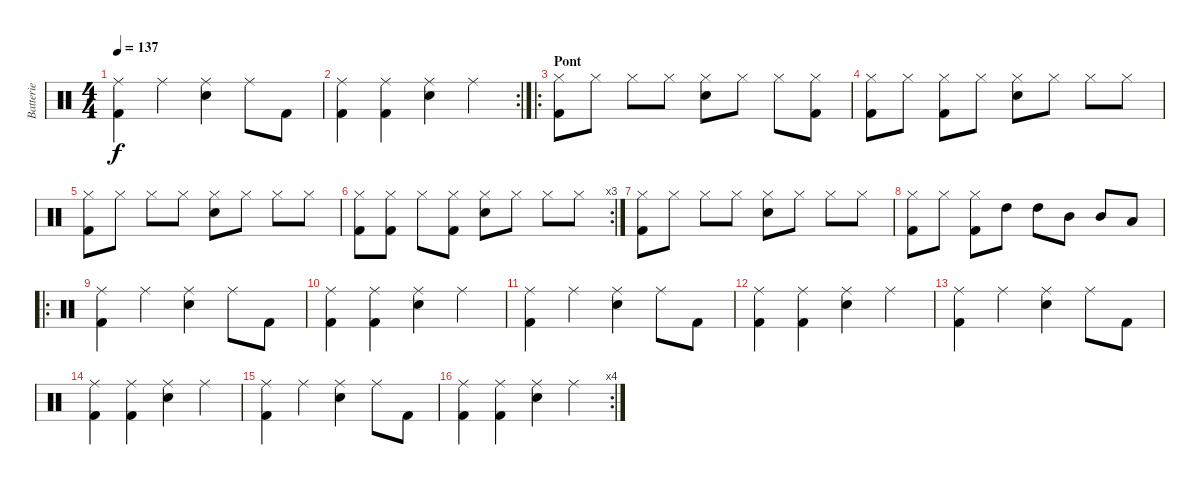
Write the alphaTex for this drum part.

\track ("Batterie" "Batterie") {instrument percussion}
\staff {score}
\articulation defaults
\ts (4 4)
\tempo 137
\clef neutral
\ks c
("Kick (hit) 2" "Ride (middle)").4{dy f} "Ride (middle)".4 ("Snare (hit) 2" "Ride (middle)").4 "Ride (middle)".8 "Kick (hit) 2".8 |
\rc 2
("Kick (hit) 2" "Ride (middle)").4 ("Kick (hit) 2" "Ride (middle)").4 ("Snare (hit) 2" "Ride (middle)").4 "Ride (middle)".4 |
\ro
\section ("" "Pont")
("Kick (hit) 2" "Hi-Hat (closed)").8 "Hi-Hat (closed)".8 "Hi-Hat (closed)".8 "Hi-Hat (closed)".8 ("Snare (hit) 2" "Hi-Hat (closed)").8 "Hi-Hat (closed)".8 "Hi-Hat (closed)".8 ("Kick (hit) 2" "Hi-Hat (closed)").8 |
("Kick (hit) 2" "Hi-Hat (closed)").8 "Hi-Hat (closed)".8 ("Kick (hit) 2" "Hi-Hat (closed)").8 "Hi-Hat (closed)".8 ("Snare (hit) 2" "Hi-Hat (closed)").8 "Hi-Hat (closed)".8 "Hi-Hat (closed)".8 "Hi-Hat (closed)".8 |
("Kick (hit) 2" "Hi-Hat (closed)").8 "Hi-Hat (closed)".8 "Hi-Hat (closed)".8 "Hi-Hat (closed)".8 ("Snare (hit) 2" "Hi-Hat (closed)").8 "Hi-Hat (closed)".8 "Hi-Hat (closed)".8 "Hi-Hat (closed)".8 |
\rc 3
("Kick (hit) 2" "Hi-Hat (closed)").8 ("Kick (hit) 2" "Hi-Hat (closed)").8 "Hi-Hat (closed)".8 ("Kick (hit) 2" "Hi-Hat (closed)").8 ("Snare (hit) 2" "Hi-Hat (closed)").8 "Hi-Hat (closed)".8 "Hi-Hat (closed)".8 "Hi-Hat (closed)".8 |
("Kick (hit) 2" "Hi-Hat (closed)").8 "Hi-Hat (closed)".8{volume 8} "Hi-Hat (closed)".8 "Hi-Hat (closed)".8 ("Snare (hit) 2" "Hi-Hat (closed)").8{volume 16} "Hi-Hat (closed)".8 "Hi-Hat (closed)".8 "Hi-Hat (closed)".8 |
("Kick (hit) 2" "Hi-Hat (closed)").8 "Hi-Hat (closed)".8 ("Kick (hit) 2" "Hi-Hat (closed)").8 "High Tom (hit)".8 "High Tom (hit)".8 "Mid Tom (hit)".8 "Mid Tom (hit)".8 "Low Tom (hit)".8 |
\ro
("Kick (hit) 2" "Ride (middle)").4 "Ride (middle)".4 ("Snare (hit) 2" "Ride (middle)").4 "Ride (middle)".8 "Kick (hit) 2".8 |
("Kick (hit) 2" "Ride (middle)").4 ("Kick (hit) 2" "Ride (middle)").4 ("Snare (hit) 2" "Ride (middle)").4 "Ride (middle)".4 |
("Kick (hit) 2" "Ride (middle)").4 "Ride (middle)".4 ("Snare (hit) 2" "Ride (middle)").4 "Ride (middle)".8 "Kick (hit) 2".8 |
("Kick (hit) 2" "Ride (middle)").4 ("Kick (hit) 2" "Ride (middle)").4 ("Snare (hit) 2" "Ride (middle)").4 "Ride (middle)".4 |
("Kick (hit) 2" "Ride (middle)").4 "Ride (middle)".4 ("Snare (hit) 2" "Ride (middle)").4 "Ride (middle)".8 "Kick (hit) 2".8 |
("Kick (hit) 2" "Ride (middle)").4 ("Kick (hit) 2" "Ride (middle)").4 ("Snare (hit) 2" "Ride (middle)").4 "Ride (middle)".4 |
("Kick (hit) 2" "Ride (middle)").4 "Ride (middle)".4 ("Snare (hit) 2" "Ride (middle)").4 "Ride (middle)".8 "Kick (hit) 2".8 |
\rc 4
("Kick (hit) 2" "Ride (middle)").4 ("Kick (hit) 2" "Ride (middle)").4 ("Snare (hit) 2" "Ride (middle)").4 "Ride (middle)".4
